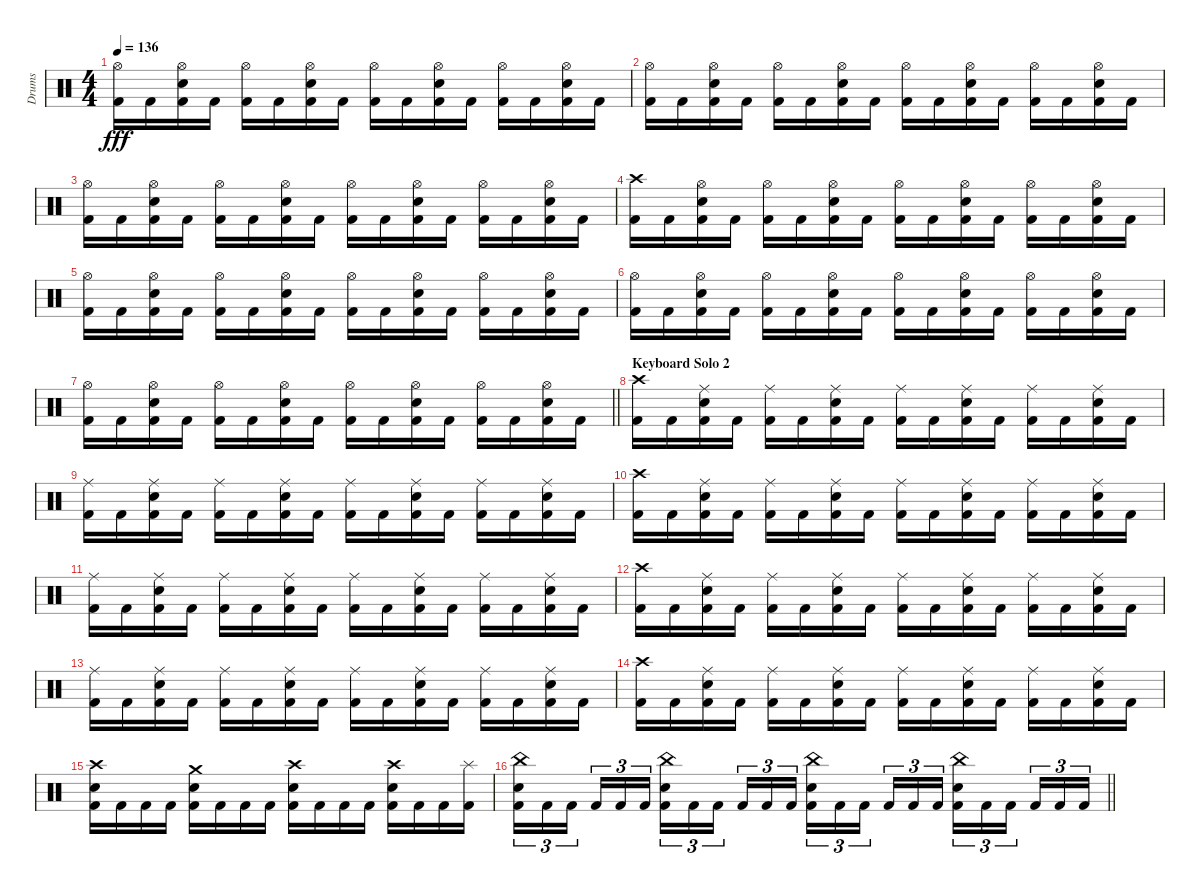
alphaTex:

\track ("Drums" "Drums") {instrument percussion}
\staff {score}
\articulation defaults
\ts (4 4)
\tempo 136
\clef neutral
\ks c
("Hi-Hat (open)" "Kick (hit) 2").16{dy fff} "Kick (hit) 2".16 ("Hi-Hat (open)" "Electric Snare (hit)" "Kick (hit) 2").16 "Kick (hit) 2".16 ("Hi-Hat (open)" "Kick (hit) 2").16 "Kick (hit) 2".16 ("Hi-Hat (open)" "Electric Snare (hit)" "Kick (hit) 2").16 "Kick (hit) 2".16 ("Hi-Hat (open)" "Kick (hit) 2").16 "Kick (hit) 2".16 ("Hi-Hat (open)" "Electric Snare (hit)" "Kick (hit) 2").16 "Kick (hit) 2".16 ("Hi-Hat (open)" "Kick (hit) 2").16 "Kick (hit) 2".16 ("Hi-Hat (open)" "Electric Snare (hit)" "Kick (hit) 2").16 "Kick (hit) 2".16 |
("Hi-Hat (open)" "Kick (hit) 2").16 "Kick (hit) 2".16 ("Hi-Hat (open)" "Electric Snare (hit)" "Kick (hit) 2").16 "Kick (hit) 2".16 ("Hi-Hat (open)" "Kick (hit) 2").16 "Kick (hit) 2".16 ("Hi-Hat (open)" "Electric Snare (hit)" "Kick (hit) 2").16 "Kick (hit) 2".16 ("Hi-Hat (open)" "Kick (hit) 2").16 "Kick (hit) 2".16 ("Hi-Hat (open)" "Electric Snare (hit)" "Kick (hit) 2").16 "Kick (hit) 2".16 ("Hi-Hat (open)" "Kick (hit) 2").16 "Kick (hit) 2".16 ("Hi-Hat (open)" "Electric Snare (hit)" "Kick (hit) 2").16 "Kick (hit) 2".16 |
("Hi-Hat (open)" "Kick (hit) 2").16 "Kick (hit) 2".16 ("Hi-Hat (open)" "Electric Snare (hit)" "Kick (hit) 2").16 "Kick (hit) 2".16 ("Hi-Hat (open)" "Kick (hit) 2").16 "Kick (hit) 2".16 ("Hi-Hat (open)" "Electric Snare (hit)" "Kick (hit) 2").16 "Kick (hit) 2".16 ("Hi-Hat (open)" "Kick (hit) 2").16 "Kick (hit) 2".16 ("Hi-Hat (open)" "Electric Snare (hit)" "Kick (hit) 2").16 "Kick (hit) 2".16 ("Hi-Hat (open)" "Kick (hit) 2").16 "Kick (hit) 2".16 ("Hi-Hat (open)" "Electric Snare (hit)" "Kick (hit) 2").16 "Kick (hit) 2".16 |
("Crash high (hit)" "Kick (hit) 2").16 "Kick (hit) 2".16 ("Hi-Hat (open)" "Electric Snare (hit)" "Kick (hit) 2").16 "Kick (hit) 2".16 ("Hi-Hat (open)" "Kick (hit) 2").16 "Kick (hit) 2".16 ("Hi-Hat (open)" "Electric Snare (hit)" "Kick (hit) 2").16 "Kick (hit) 2".16 ("Hi-Hat (open)" "Kick (hit) 2").16 "Kick (hit) 2".16 ("Hi-Hat (open)" "Electric Snare (hit)" "Kick (hit) 2").16 "Kick (hit) 2".16 ("Hi-Hat (open)" "Kick (hit) 2").16 "Kick (hit) 2".16 ("Hi-Hat (open)" "Electric Snare (hit)" "Kick (hit) 2").16 "Kick (hit) 2".16 |
("Hi-Hat (open)" "Kick (hit) 2").16 "Kick (hit) 2".16 ("Hi-Hat (open)" "Electric Snare (hit)" "Kick (hit) 2").16 "Kick (hit) 2".16 ("Hi-Hat (open)" "Kick (hit) 2").16 "Kick (hit) 2".16 ("Hi-Hat (open)" "Electric Snare (hit)" "Kick (hit) 2").16 "Kick (hit) 2".16 ("Hi-Hat (open)" "Kick (hit) 2").16 "Kick (hit) 2".16 ("Hi-Hat (open)" "Electric Snare (hit)" "Kick (hit) 2").16 "Kick (hit) 2".16 ("Hi-Hat (open)" "Kick (hit) 2").16 "Kick (hit) 2".16 ("Hi-Hat (open)" "Electric Snare (hit)" "Kick (hit) 2").16 "Kick (hit) 2".16 |
("Hi-Hat (open)" "Kick (hit) 2").16 "Kick (hit) 2".16 ("Hi-Hat (open)" "Electric Snare (hit)" "Kick (hit) 2").16 "Kick (hit) 2".16 ("Hi-Hat (open)" "Kick (hit) 2").16 "Kick (hit) 2".16 ("Hi-Hat (open)" "Electric Snare (hit)" "Kick (hit) 2").16 "Kick (hit) 2".16 ("Hi-Hat (open)" "Kick (hit) 2").16 "Kick (hit) 2".16 ("Hi-Hat (open)" "Electric Snare (hit)" "Kick (hit) 2").16 "Kick (hit) 2".16 ("Hi-Hat (open)" "Kick (hit) 2").16 "Kick (hit) 2".16 ("Hi-Hat (open)" "Electric Snare (hit)" "Kick (hit) 2").16 "Kick (hit) 2".16 |
\barLineRight lightlight
("Hi-Hat (open)" "Kick (hit) 2").16 "Kick (hit) 2".16 ("Hi-Hat (open)" "Electric Snare (hit)" "Kick (hit) 2").16 "Kick (hit) 2".16 ("Hi-Hat (open)" "Kick (hit) 2").16 "Kick (hit) 2".16 ("Hi-Hat (open)" "Electric Snare (hit)" "Kick (hit) 2").16 "Kick (hit) 2".16 ("Hi-Hat (open)" "Kick (hit) 2").16 "Kick (hit) 2".16 ("Hi-Hat (open)" "Electric Snare (hit)" "Kick (hit) 2").16 "Kick (hit) 2".16 ("Hi-Hat (open)" "Kick (hit) 2").16 "Kick (hit) 2".16 ("Hi-Hat (open)" "Electric Snare (hit)" "Kick (hit) 2").16 "Kick (hit) 2".16 |
\section ("" "Keyboard Solo 2")
("Crash high (hit)" "Kick (hit) 2").16 "Kick (hit) 2".16 ("Ride (middle)" "Electric Snare (hit)" "Kick (hit) 2").16 "Kick (hit) 2".16 ("Ride (middle)" "Kick (hit) 2").16 "Kick (hit) 2".16 ("Ride (middle)" "Electric Snare (hit)" "Kick (hit) 2").16 "Kick (hit) 2".16 ("Ride (middle)" "Kick (hit) 2").16 "Kick (hit) 2".16 ("Ride (middle)" "Electric Snare (hit)" "Kick (hit) 2").16 "Kick (hit) 2".16 ("Ride (middle)" "Kick (hit) 2").16 "Kick (hit) 2".16 ("Ride (middle)" "Electric Snare (hit)" "Kick (hit) 2").16 "Kick (hit) 2".16 |
("Ride (middle)" "Kick (hit) 2").16 "Kick (hit) 2".16 ("Ride (middle)" "Electric Snare (hit)" "Kick (hit) 2").16 "Kick (hit) 2".16 ("Ride (middle)" "Kick (hit) 2").16 "Kick (hit) 2".16 ("Ride (middle)" "Electric Snare (hit)" "Kick (hit) 2").16 "Kick (hit) 2".16 ("Ride (middle)" "Kick (hit) 2").16 "Kick (hit) 2".16 ("Ride (middle)" "Electric Snare (hit)" "Kick (hit) 2").16 "Kick (hit) 2".16 ("Ride (middle)" "Kick (hit) 2").16 "Kick (hit) 2".16 ("Ride (middle)" "Electric Snare (hit)" "Kick (hit) 2").16 "Kick (hit) 2".16 |
("Crash high (hit)" "Kick (hit) 2").16 "Kick (hit) 2".16 ("Ride (middle)" "Electric Snare (hit)" "Kick (hit) 2").16 "Kick (hit) 2".16 ("Ride (middle)" "Kick (hit) 2").16 "Kick (hit) 2".16 ("Ride (middle)" "Electric Snare (hit)" "Kick (hit) 2").16 "Kick (hit) 2".16 ("Ride (middle)" "Kick (hit) 2").16 "Kick (hit) 2".16 ("Ride (middle)" "Electric Snare (hit)" "Kick (hit) 2").16 "Kick (hit) 2".16 ("Ride (middle)" "Kick (hit) 2").16 "Kick (hit) 2".16 ("Ride (middle)" "Electric Snare (hit)" "Kick (hit) 2").16 "Kick (hit) 2".16 |
("Ride (middle)" "Kick (hit) 2").16 "Kick (hit) 2".16 ("Ride (middle)" "Electric Snare (hit)" "Kick (hit) 2").16 "Kick (hit) 2".16 ("Ride (middle)" "Kick (hit) 2").16 "Kick (hit) 2".16 ("Ride (middle)" "Electric Snare (hit)" "Kick (hit) 2").16 "Kick (hit) 2".16 ("Ride (middle)" "Kick (hit) 2").16 "Kick (hit) 2".16 ("Ride (middle)" "Electric Snare (hit)" "Kick (hit) 2").16 "Kick (hit) 2".16 ("Ride (middle)" "Kick (hit) 2").16 "Kick (hit) 2".16 ("Ride (middle)" "Electric Snare (hit)" "Kick (hit) 2").16 "Kick (hit) 2".16 |
("Crash high (hit)" "Kick (hit) 2").16 "Kick (hit) 2".16 ("Ride (middle)" "Electric Snare (hit)" "Kick (hit) 2").16 "Kick (hit) 2".16 ("Ride (middle)" "Kick (hit) 2").16 "Kick (hit) 2".16 ("Ride (middle)" "Electric Snare (hit)" "Kick (hit) 2").16 "Kick (hit) 2".16 ("Ride (middle)" "Kick (hit) 2").16 "Kick (hit) 2".16 ("Ride (middle)" "Electric Snare (hit)" "Kick (hit) 2").16 "Kick (hit) 2".16 ("Ride (middle)" "Kick (hit) 2").16 "Kick (hit) 2".16 ("Ride (middle)" "Electric Snare (hit)" "Kick (hit) 2").16 "Kick (hit) 2".16 |
("Ride (middle)" "Kick (hit) 2").16 "Kick (hit) 2".16 ("Ride (middle)" "Electric Snare (hit)" "Kick (hit) 2").16 "Kick (hit) 2".16 ("Ride (middle)" "Kick (hit) 2").16 "Kick (hit) 2".16 ("Ride (middle)" "Electric Snare (hit)" "Kick (hit) 2").16 "Kick (hit) 2".16 ("Ride (middle)" "Kick (hit) 2").16 "Kick (hit) 2".16 ("Ride (middle)" "Electric Snare (hit)" "Kick (hit) 2").16 "Kick (hit) 2".16 ("Ride (middle)" "Kick (hit) 2").16 "Kick (hit) 2".16 ("Ride (middle)" "Electric Snare (hit)" "Kick (hit) 2").16 "Kick (hit) 2".16 |
("Crash high (hit)" "Kick (hit) 2").16 "Kick (hit) 2".16 ("Ride (middle)" "Electric Snare (hit)" "Kick (hit) 2").16 "Kick (hit) 2".16 ("Ride (middle)" "Kick (hit) 2").16 "Kick (hit) 2".16 ("Ride (middle)" "Electric Snare (hit)" "Kick (hit) 2").16 "Kick (hit) 2".16 ("Ride (middle)" "Kick (hit) 2").16 "Kick (hit) 2".16 ("Ride (middle)" "Electric Snare (hit)" "Kick (hit) 2").16 "Kick (hit) 2".16 ("Ride (middle)" "Kick (hit) 2").16 "Kick (hit) 2".16 ("Ride (middle)" "Electric Snare (hit)" "Kick (hit) 2").16 "Kick (hit) 2".16 |
("Crash high (hit)" "Electric Snare (hit)" "Kick (hit) 2").16 "Kick (hit) 2".16 "Kick (hit) 2".16 "Kick (hit) 2".16 ("Crash medium (hit)" "Electric Snare (hit)" "Kick (hit) 2").16 "Kick (hit) 2".16 "Kick (hit) 2".16 "Kick (hit) 2".16 ("Crash high (hit)" "Electric Snare (hit)" "Kick (hit) 2").16 "Kick (hit) 2".16 "Kick (hit) 2".16 "Kick (hit) 2".16 ("Crash high (hit)" "Electric Snare (hit)" "Kick (hit) 2").16 "Kick (hit) 2".16 "Kick (hit) 2".16 ("Splash (hit)" "Kick (hit) 2").16 |
\barLineRight lightlight
("China (hit)" "Electric Snare (hit)" "Kick (hit) 2").16{tu (3 2)} "Kick (hit) 2".16{tu (3 2)} "Kick (hit) 2".16{tu (3 2)} "Kick (hit) 2".16{tu (3 2)} "Kick (hit) 2".16{tu (3 2)} "Kick (hit) 2".16{tu (3 2)} ("China (hit)" "Electric Snare (hit)" "Kick (hit) 2").16{tu (3 2)} "Kick (hit) 2".16{tu (3 2)} "Kick (hit) 2".16{tu (3 2)} "Kick (hit) 2".16{tu (3 2)} "Kick (hit) 2".16{tu (3 2)} "Kick (hit) 2".16{tu (3 2)} ("China (hit)" "Electric Snare (hit)" "Kick (hit) 2").16{tu (3 2)} "Kick (hit) 2".16{tu (3 2)} "Kick (hit) 2".16{tu (3 2)} "Kick (hit) 2".16{tu (3 2)} "Kick (hit) 2".16{tu (3 2)} "Kick (hit) 2".16{tu (3 2)} ("China (hit)" "Electric Snare (hit)" "Kick (hit) 2").16{tu (3 2)} "Kick (hit) 2".16{tu (3 2)} "Kick (hit) 2".16{tu (3 2)} "Kick (hit) 2".16{tu (3 2)} "Kick (hit) 2".16{tu (3 2)} "Kick (hit) 2".16{tu (3 2)}
